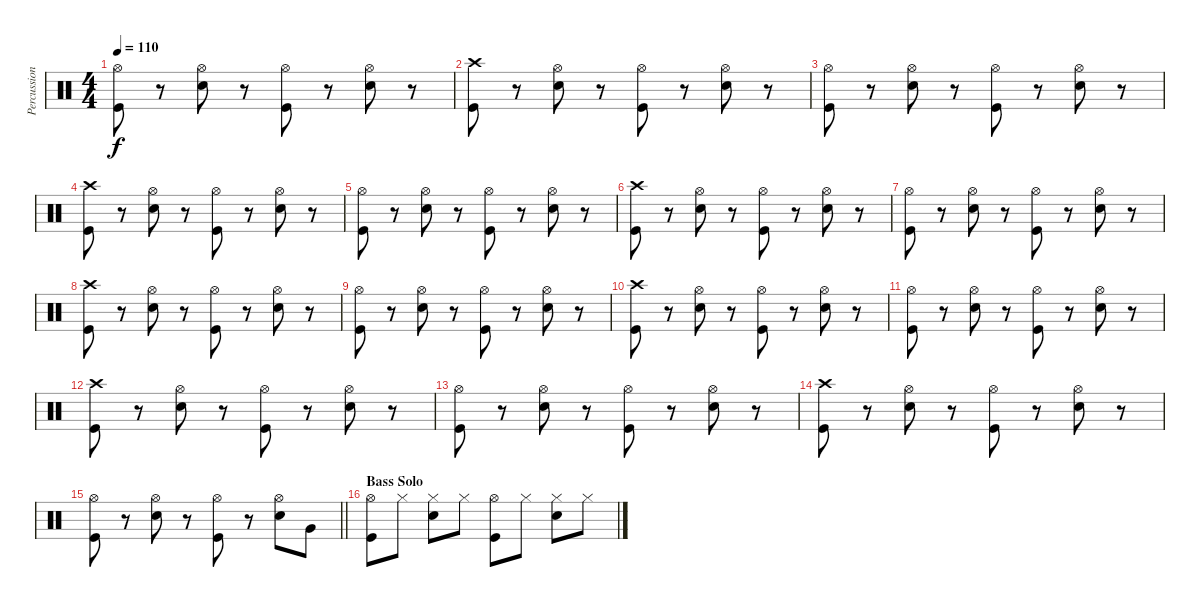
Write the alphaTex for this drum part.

\track ("Percussion" "Percussion") {instrument percussion}
\staff {score}
\articulation defaults
\ts (4 4)
\tempo 110
\clef neutral
\ks c
("Hi-Hat (open)" "Kick (hit)").8{dy f} r.8 ("Hi-Hat (open)" "Snare (hit) 2").8 r.8 ("Hi-Hat (open)" "Kick (hit)").8 r.8 ("Hi-Hat (open)" "Snare (hit) 2").8 r.8 |
("Crash high (hit)" "Kick (hit)").8 r.8 ("Hi-Hat (open)" "Snare (hit) 2").8 r.8 ("Hi-Hat (open)" "Kick (hit)").8 r.8 ("Hi-Hat (open)" "Snare (hit) 2").8 r.8 |
("Hi-Hat (open)" "Kick (hit)").8 r.8 ("Hi-Hat (open)" "Snare (hit) 2").8 r.8 ("Hi-Hat (open)" "Kick (hit)").8 r.8 ("Hi-Hat (open)" "Snare (hit) 2").8 r.8 |
("Crash high (hit)" "Kick (hit)").8 r.8 ("Hi-Hat (open)" "Snare (hit) 2").8 r.8 ("Hi-Hat (open)" "Kick (hit)").8 r.8 ("Hi-Hat (open)" "Snare (hit) 2").8 r.8 |
("Hi-Hat (open)" "Kick (hit)").8 r.8 ("Hi-Hat (open)" "Snare (hit) 2").8 r.8 ("Hi-Hat (open)" "Kick (hit)").8 r.8 ("Hi-Hat (open)" "Snare (hit) 2").8 r.8 |
("Crash high (hit)" "Kick (hit)").8 r.8 ("Hi-Hat (open)" "Snare (hit) 2").8 r.8 ("Hi-Hat (open)" "Kick (hit)").8 r.8 ("Hi-Hat (open)" "Snare (hit) 2").8 r.8 |
("Hi-Hat (open)" "Kick (hit)").8 r.8 ("Hi-Hat (open)" "Snare (hit) 2").8 r.8 ("Hi-Hat (open)" "Kick (hit)").8 r.8 ("Hi-Hat (open)" "Snare (hit) 2").8 r.8 |
("Crash high (hit)" "Kick (hit)").8 r.8 ("Hi-Hat (open)" "Snare (hit) 2").8 r.8 ("Hi-Hat (open)" "Kick (hit)").8 r.8 ("Hi-Hat (open)" "Snare (hit) 2").8 r.8 |
("Hi-Hat (open)" "Kick (hit)").8 r.8 ("Hi-Hat (open)" "Snare (hit) 2").8 r.8 ("Hi-Hat (open)" "Kick (hit)").8 r.8 ("Hi-Hat (open)" "Snare (hit) 2").8 r.8 |
("Crash high (hit)" "Kick (hit)").8 r.8 ("Hi-Hat (open)" "Snare (hit) 2").8 r.8 ("Hi-Hat (open)" "Kick (hit)").8 r.8 ("Hi-Hat (open)" "Snare (hit) 2").8 r.8 |
("Hi-Hat (open)" "Kick (hit)").8 r.8 ("Hi-Hat (open)" "Snare (hit) 2").8 r.8 ("Hi-Hat (open)" "Kick (hit)").8 r.8 ("Hi-Hat (open)" "Snare (hit) 2").8 r.8 |
("Crash high (hit)" "Kick (hit)").8 r.8 ("Hi-Hat (open)" "Snare (hit) 2").8 r.8 ("Hi-Hat (open)" "Kick (hit)").8 r.8 ("Hi-Hat (open)" "Snare (hit) 2").8 r.8 |
("Hi-Hat (open)" "Kick (hit)").8 r.8 ("Hi-Hat (open)" "Snare (hit) 2").8 r.8 ("Hi-Hat (open)" "Kick (hit)").8 r.8 ("Hi-Hat (open)" "Snare (hit) 2").8 r.8 |
("Crash high (hit)" "Kick (hit)").8 r.8 ("Hi-Hat (open)" "Snare (hit) 2").8 r.8 ("Hi-Hat (open)" "Kick (hit)").8 r.8 ("Hi-Hat (open)" "Snare (hit) 2").8 r.8 |
\barLineRight lightlight
("Hi-Hat (open)" "Kick (hit)").8 r.8 ("Hi-Hat (open)" "Snare (hit) 2").8 r.8 ("Hi-Hat (open)" "Kick (hit)").8 r.8 ("Hi-Hat (open)" "Snare (hit) 2").8 "Very Low Tom (hit)".8 |
\section ("" "Bass Solo")
("Hi-Hat (open)" "Kick (hit)").8 "Hi-Hat (closed)".8 ("Hi-Hat (closed)" "Snare (hit) 2").8 "Hi-Hat (closed)".8 ("Hi-Hat (open)" "Kick (hit)").8 "Hi-Hat (closed)".8 ("Hi-Hat (closed)" "Snare (hit) 2").8 "Hi-Hat (closed)".8
